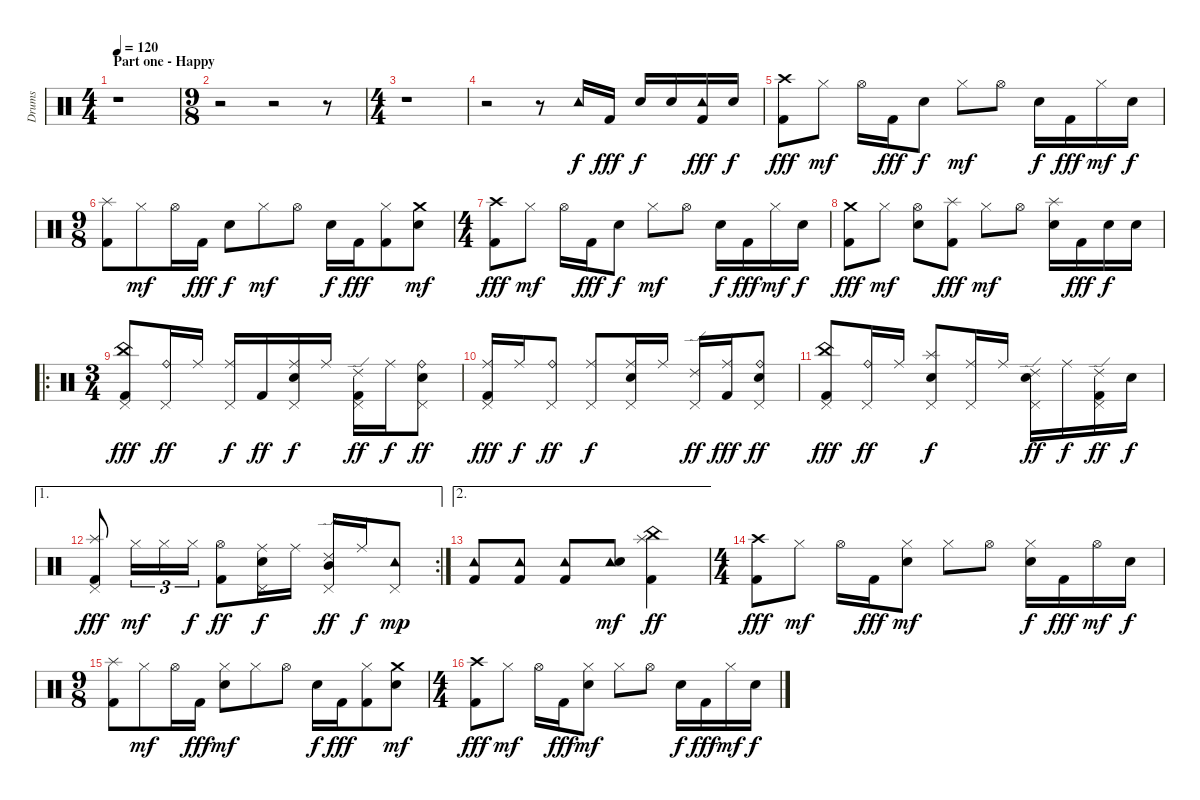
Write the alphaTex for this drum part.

\track ("Drums" "Drums") {instrument percussion}
\staff {score}
\articulation defaults
\ts (4 4)
\section ("" "Part one - Happy")
\tempo 120
\clef neutral
\ks c
r.1{dy f} |
\ts (9 8)
r.2 r.2 r.8 |
\ts (4 4)
r.1 |
r.2 r.8 "Tambourine (hit)".16 "Kick (hit) 2".16{dy fff} "Electric Snare (hit)".16{dy f} "Electric Snare (hit)".16 ("Tambourine (hit)" "Kick (hit) 2").16{dy fff} "Electric Snare (hit)".16{dy f} |
("Crash high (hit)" "Kick (hit) 2").8{dy fff} "Hi-Hat (closed)".8{dy mf} "Hi-Hat (open)".16 "Kick (hit) 2".16{dy fff} "Electric Snare (hit)".8{dy f} "Hi-Hat (closed)".8{dy mf} "Hi-Hat (open)".8 "Electric Snare (hit)".16{dy f} "Kick (hit) 2".16{dy fff} "Hi-Hat (closed)".16{dy mf} "Electric Snare (hit)".16{dy f} |
\ts (9 8)
("Splash (hit)" "Kick (hit) 2").8 "Hi-Hat (closed)".8{dy mf} "Hi-Hat (open)".16 "Kick (hit) 2".16{dy fff} "Electric Snare (hit)".8{dy f} "Hi-Hat (closed)".8{dy mf} "Hi-Hat (open)".8 "Electric Snare (hit)".16{dy f} "Kick (hit) 2".16{dy fff} ("Hi-Hat (closed)" "Kick (hit) 2").8 ("Crash medium (hit)" "Electric Snare (hit)").8{dy mf} |
\ts (4 4)
("Crash high (hit)" "Kick (hit) 2").8{dy fff} "Hi-Hat (closed)".8{dy mf} "Hi-Hat (open)".16 "Kick (hit) 2".16{dy fff} "Electric Snare (hit)".8{dy f} "Hi-Hat (closed)".8{dy mf} "Hi-Hat (open)".8 "Electric Snare (hit)".16{dy f} "Kick (hit) 2".16{dy fff} "Hi-Hat (closed)".16{dy mf} "Electric Snare (hit)".16{dy f} |
("Crash medium (hit)" "Kick (hit) 2").8{dy fff} "Hi-Hat (closed)".8{dy mf} ("Hi-Hat (open)" "Electric Snare (hit)").8 ("Splash (hit)" "Kick (hit) 2").8{dy fff} "Hi-Hat (closed)".8{dy mf} "Hi-Hat (open)".8 ("Splash (hit)" "Electric Snare (hit)").16 "Kick (hit) 2".16{dy fff} "Electric Snare (hit)".16{dy f} "Electric Snare (hit)".16 |
\ro
\ts (3 4)
("China (hit)" "Pedal Hi-Hat (hit)" "Kick (hit) 2").8{dy fff} ("Ride (bell)" "Pedal Hi-Hat (hit)").16{dy ff} "Ride (middle)".16 ("Ride (middle)" "Pedal Hi-Hat (hit)").16{dy f} "Kick (hit) 2".16{dy ff} ("Ride (middle)" "Pedal Hi-Hat (hit)" "Electric Snare (hit)").16{dy f} "Ride (middle)".16 ("Ride (edge) 2" "Pedal Hi-Hat (hit)" "Kick (hit) 2").16{dy ff} "Ride (middle)".16{dy f} ("Ride (bell)" "Pedal Hi-Hat (hit)" "Electric Snare (hit)").8{dy ff} |
("Ride (middle)" "Pedal Hi-Hat (hit)" "Kick (hit) 2").16{dy fff} "Ride (middle)".16{dy f} ("Ride (bell)" "Pedal Hi-Hat (hit)").8{dy ff} ("Ride (middle)" "Pedal Hi-Hat (hit)").8{dy f} ("Ride (middle)" "Pedal Hi-Hat (hit)" "Electric Snare (hit)").16 "Ride (middle)".16 ("Ride (edge) 2" "Pedal Hi-Hat (hit)").16{dy ff} ("Ride (middle)" "Kick (hit) 2").16{dy fff} ("Ride (bell)" "Pedal Hi-Hat (hit)" "Electric Snare (hit)").8{dy ff} |
("China (hit)" "Pedal Hi-Hat (hit)" "Kick (hit) 2").8{dy fff} ("Ride (bell)" "Pedal Hi-Hat (hit)").16{dy ff} "Ride (middle)".16 ("Splash (hit)" "Pedal Hi-Hat (hit)" "Electric Snare (hit)").8{dy f} ("Ride (middle)" "Pedal Hi-Hat (hit)").16 "Ride (middle)".16 ("Ride (edge) 2" "Pedal Hi-Hat (hit)" "Electric Snare (hit)").16{dy ff} "Ride (middle)".16{dy f} ("Ride (edge) 2" "Pedal Hi-Hat (hit)" "Kick (hit) 2").16{dy ff} "Electric Snare (hit)".16{dy f} |
\ae 1
\rc 2
("Splash (hit)" "Pedal Hi-Hat (hit)" "Kick (hit) 2").8{dy fff} "Hi-Hat (closed)".16{tu (3 2) dy mf} "Hi-Hat (closed)".16{tu (3 2)} "Hi-Hat (closed)".16{tu (3 2) dy f} ("Hi-Hat (open)" "Kick (hit) 2").8{dy ff} ("Ride (middle)" "Pedal Hi-Hat (hit)" "Electric Snare (hit)").16{dy f} "Ride (middle)".16 ("Ride (edge) 2" "Pedal Hi-Hat (hit)" "Mid Tom (hit)").16{dy ff} "Ride (middle)".16{dy f} ("Tambourine (hit)" "Pedal Hi-Hat (hit)").8{dy mp} |
\ae 2
("Tambourine (hit)" "Kick (hit) 2").8 ("Tambourine (hit)" "Kick (hit) 2").8 ("Tambourine (hit)" "Kick (hit) 2").8 ("Tambourine (hit)" "Electric Snare (hit)").8{dy mf} ("China (hit)" "Splash (hit)" "Kick (hit) 2").4{dy ff} |
\ts (4 4)
("Crash high (hit)" "Kick (hit) 2").8{dy fff} "Hi-Hat (closed)".8{dy mf} "Hi-Hat (open)".16 "Kick (hit) 2".16{dy fff} ("Hi-Hat (closed)" "Electric Snare (hit)").8{dy mf} "Hi-Hat (closed)".8 "Hi-Hat (open)".8 ("Hi-Hat (closed)" "Electric Snare (hit)").16{dy f} "Kick (hit) 2".16{dy fff} "Hi-Hat (open)".16{dy mf} "Electric Snare (hit)".16{dy f} |
\ts (9 8)
("Splash (hit)" "Kick (hit) 2").8 "Hi-Hat (closed)".8{dy mf} "Hi-Hat (open)".16 "Kick (hit) 2".16{dy fff} ("Hi-Hat (closed)" "Electric Snare (hit)").8{dy mf} "Hi-Hat (closed)".8 "Hi-Hat (open)".8 "Electric Snare (hit)".16{dy f} "Kick (hit) 2".16{dy fff} ("Hi-Hat (closed)" "Kick (hit) 2").8 ("Crash medium (hit)" "Electric Snare (hit)").8{dy mf} |
\ts (4 4)
("Crash high (hit)" "Kick (hit) 2").8{dy fff} "Hi-Hat (closed)".8{dy mf} "Hi-Hat (open)".16 "Kick (hit) 2".16{dy fff} ("Hi-Hat (closed)" "Electric Snare (hit)").8{dy mf} "Hi-Hat (closed)".8 "Hi-Hat (open)".8 "Electric Snare (hit)".16{dy f} "Kick (hit) 2".16{dy fff} "Hi-Hat (closed)".16{dy mf} "Electric Snare (hit)".16{dy f}
